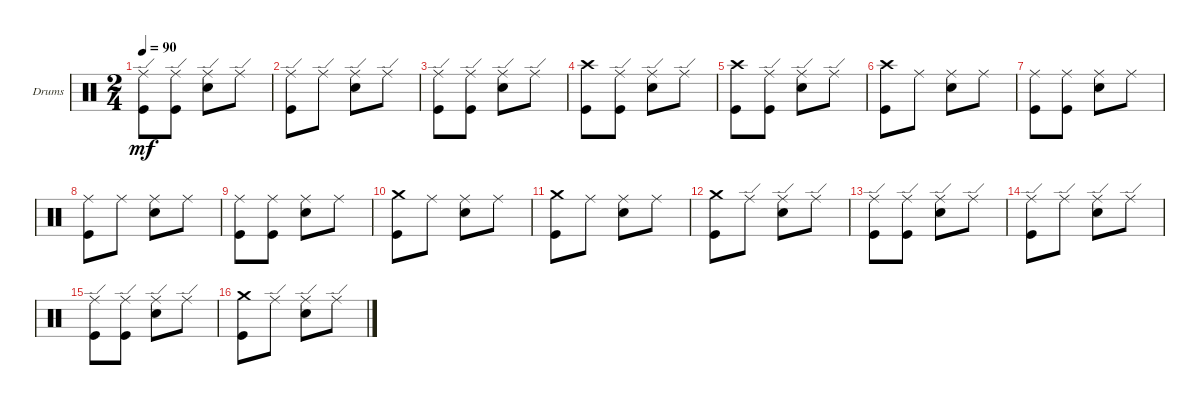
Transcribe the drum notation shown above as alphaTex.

\bracketExtendMode groupsimilarinstruments
\firstSystemTrackNameOrientation horizontal
\otherSystemsTrackNameOrientation horizontal
\track ("Drumkit" "Drums") {instrument percussion}
\staff {score}
\articulation defaults
\ts (2 4)
\tempo 90
\clef neutral
\scale
0.333333
\ks c
("Kick (hit)" "Ride (edge)").8{dy mf} ("Kick (hit)" "Ride (edge)").8 ("Snare (hit) 2" "Ride (edge)").8 "Ride (edge)".8 |
\scale
0.333333 ("Kick (hit)" "Ride (edge)").8 "Ride (edge)".8 ("Snare (hit) 2" "Ride (edge)").8 "Ride (edge)".8 |
\scale
0.333333 ("Kick (hit)" "Ride (edge)").8 ("Kick (hit)" "Ride (edge)").8 ("Snare (hit) 2" "Ride (edge)").8 "Ride (edge)".8 |
\scale
0.333333 ("Kick (hit)" "Crash high (hit)").8 ("Kick (hit)" "Ride (edge)").8 ("Snare (hit) 2" "Ride (edge)").8 "Ride (edge)".8 |
\scale
0.333333 ("Kick (hit)" "Crash high (hit)").8 ("Kick (hit)" "Ride (edge)").8 ("Snare (hit) 2" "Ride (edge)").8 "Ride (edge)".8 |
\scale
0.333333 ("Crash high (hit)" "Kick (hit)").8 "Ride (middle)".8 ("Ride (middle)" "Snare (hit) 2").8 "Ride (middle)".8 |
\scale
0.333333 ("Ride (middle)" "Kick (hit)").8 ("Ride (middle)" "Kick (hit)").8 ("Ride (middle)" "Snare (hit) 2").8 "Ride (middle)".8 |
\scale
0.333333 ("Ride (middle)" "Kick (hit)").8 "Ride (middle)".8 ("Ride (middle)" "Snare (hit) 2").8 "Ride (middle)".8 |
\scale
0.333333 ("Ride (middle)" "Kick (hit)").8 ("Ride (middle)" "Kick (hit)").8 ("Ride (middle)" "Snare (hit) 2").8 "Ride (middle)".8 |
\scale
0.333333 ("Kick (hit)" "Crash medium (hit)").8 "Ride (middle)".8 ("Ride (middle)" "Snare (hit) 2").8 "Ride (middle)".8 |
\scale
0.333333 ("Kick (hit)" "Crash medium (hit)").8 "Ride (middle)".8 ("Ride (middle)" "Snare (hit) 2").8 "Ride (middle)".8 |
\scale
0.333333 ("Kick (hit)" "Crash medium (hit)").8 "Ride (edge)".8 ("Ride (edge)" "Snare (hit) 2").8 "Ride (edge)".8 |
\scale
0.333333 ("Ride (edge)" "Kick (hit)").8 ("Ride (edge)" "Kick (hit)").8 ("Ride (edge)" "Snare (hit) 2").8 "Ride (edge)".8 |
\scale
0.333333 ("Ride (edge)" "Kick (hit)").8 "Ride (edge)".8 ("Ride (edge)" "Snare (hit) 2").8 "Ride (edge)".8 |
\scale
0.333333 ("Ride (edge)" "Kick (hit)").8 ("Ride (edge)" "Kick (hit)").8 ("Ride (edge)" "Snare (hit) 2").8 "Ride (edge)".8 |
\scale
0.333333 ("Kick (hit)" "Crash medium (hit)").8 "Ride (edge)".8 ("Ride (edge)" "Snare (hit) 2").8 "Ride (edge)".8
